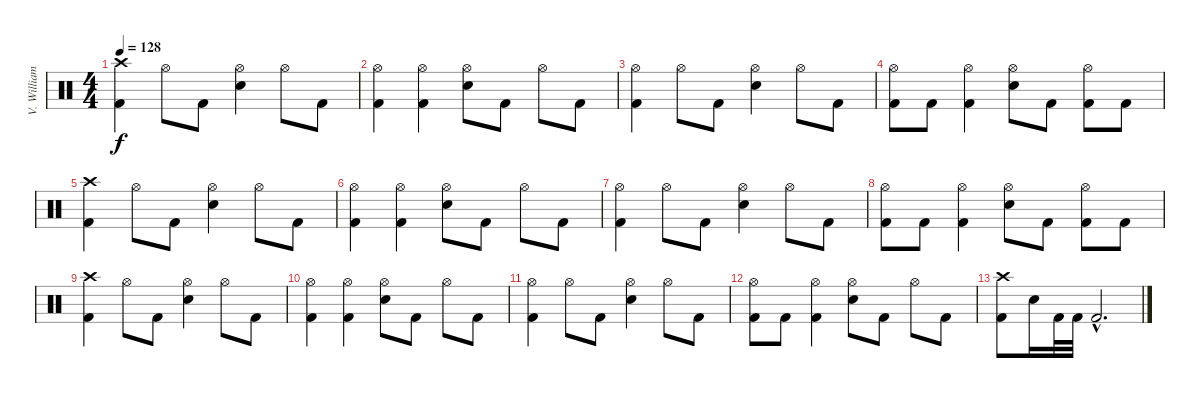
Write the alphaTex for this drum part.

\track ("V. Williams" "V. William") {instrument percussion}
\staff {score}
\articulation defaults
\ts (4 4)
\tempo 128
\clef neutral
\ks c
("Crash high (hit)" "Kick (hit) 2").4{dy f} "Hi-Hat (open)".8 "Kick (hit) 2".8 ("Hi-Hat (open)" "Electric Snare (hit)").4 "Hi-Hat (open)".8 "Kick (hit) 2".8 |
("Hi-Hat (open)" "Kick (hit) 2").4 ("Hi-Hat (open)" "Kick (hit) 2").4 ("Hi-Hat (open)" "Electric Snare (hit)").8 "Kick (hit) 2".8 "Hi-Hat (open)".8 "Kick (hit) 2".8 |
("Hi-Hat (open)" "Kick (hit) 2").4 "Hi-Hat (open)".8 "Kick (hit) 2".8 ("Hi-Hat (open)" "Electric Snare (hit)").4 "Hi-Hat (open)".8 "Kick (hit) 2".8 |
("Hi-Hat (open)" "Kick (hit) 2").8 "Kick (hit) 2".8 ("Hi-Hat (open)" "Kick (hit) 2").4 ("Hi-Hat (open)" "Electric Snare (hit)").8 "Kick (hit) 2".8 ("Hi-Hat (open)" "Kick (hit) 2").8 "Kick (hit) 2".8 |
("Crash high (hit)" "Kick (hit) 2").4 "Hi-Hat (open)".8 "Kick (hit) 2".8 ("Hi-Hat (open)" "Electric Snare (hit)").4 "Hi-Hat (open)".8 "Kick (hit) 2".8 |
("Hi-Hat (open)" "Kick (hit) 2").4 ("Hi-Hat (open)" "Kick (hit) 2").4 ("Hi-Hat (open)" "Electric Snare (hit)").8 "Kick (hit) 2".8 "Hi-Hat (open)".8 "Kick (hit) 2".8 |
("Hi-Hat (open)" "Kick (hit) 2").4 "Hi-Hat (open)".8 "Kick (hit) 2".8 ("Hi-Hat (open)" "Electric Snare (hit)").4 "Hi-Hat (open)".8 "Kick (hit) 2".8 |
("Hi-Hat (open)" "Kick (hit) 2").8 "Kick (hit) 2".8 ("Hi-Hat (open)" "Kick (hit) 2").4 ("Hi-Hat (open)" "Electric Snare (hit)").8 "Kick (hit) 2".8 ("Hi-Hat (open)" "Kick (hit) 2").8 "Kick (hit) 2".8 |
("Crash high (hit)" "Kick (hit) 2").4 "Hi-Hat (open)".8 "Kick (hit) 2".8 ("Hi-Hat (open)" "Electric Snare (hit)").4 "Hi-Hat (open)".8 "Kick (hit) 2".8 |
("Hi-Hat (open)" "Kick (hit) 2").4 ("Hi-Hat (open)" "Kick (hit) 2").4 ("Hi-Hat (open)" "Electric Snare (hit)").8 "Kick (hit) 2".8 "Hi-Hat (open)".8 "Kick (hit) 2".8 |
("Hi-Hat (open)" "Kick (hit) 2").4 "Hi-Hat (open)".8 "Kick (hit) 2".8 ("Hi-Hat (open)" "Electric Snare (hit)").4 "Hi-Hat (open)".8 "Kick (hit) 2".8 |
("Hi-Hat (open)" "Kick (hit) 2").8 "Kick (hit) 2".8 ("Hi-Hat (open)" "Kick (hit) 2").4 ("Hi-Hat (open)" "Electric Snare (hit)").8 "Kick (hit) 2".8 "Hi-Hat (open)".8 "Kick (hit) 2".8 |
("Crash high (hit)" "Kick (hit) 2").8 "Electric Snare (hit)".16 "Kick (hit) 2".32 "Kick (hit) 2".32 "Kick (hit) 2"{hac}.2{d}
